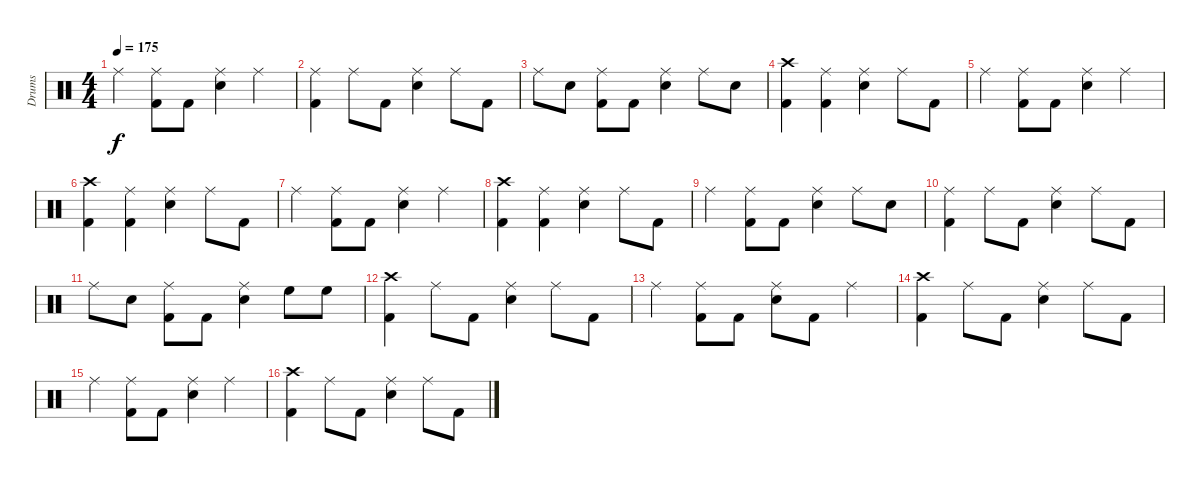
\track ("Drums" "Drums") {instrument percussion}
\staff {score}
\articulation defaults
\ts (4 4)
\tempo 175
\clef neutral
\ks c "Ride (middle)".4{dy f}
("Ride (middle)" "Kick (hit) 2").8 "Kick (hit) 2".8 ("Ride (middle)" "Snare (hit) 2").4 "Ride (middle)".4 |
("Ride (middle)" "Kick (hit) 2").4 "Ride (middle)".8 "Kick (hit) 2".8 ("Ride (middle)" "Snare (hit) 2").4 "Ride (middle)".8 "Kick (hit) 2".8 |
"Ride (middle)".8 "Snare (hit) 2".8 ("Ride (middle)" "Kick (hit) 2").8 "Kick (hit) 2".8 ("Ride (middle)" "Snare (hit) 2").4 "Ride (middle)".8 "Snare (hit) 2".8 |
("Crash high (hit)" "Kick (hit) 2").4 ("Ride (middle)" "Kick (hit) 2").4 ("Ride (middle)" "Snare (hit) 2").4 "Ride (middle)".8 "Kick (hit) 2".8 |
"Ride (middle)".4 ("Ride (middle)" "Kick (hit) 2").8 "Kick (hit) 2".8 ("Ride (middle)" "Snare (hit) 2").4 "Ride (middle)".4 |
("Crash high (hit)" "Kick (hit) 2").4 ("Ride (middle)" "Kick (hit) 2").4 ("Ride (middle)" "Snare (hit) 2").4 "Ride (middle)".8 "Kick (hit) 2".8 |
"Ride (middle)".4 ("Ride (middle)" "Kick (hit) 2").8 "Kick (hit) 2".8 ("Ride (middle)" "Snare (hit) 2").4 "Ride (middle)".4 |
("Crash high (hit)" "Kick (hit) 2").4 ("Ride (middle)" "Kick (hit) 2").4 ("Ride (middle)" "Snare (hit) 2").4 "Ride (middle)".8 "Kick (hit) 2".8 |
"Ride (middle)".4 ("Ride (middle)" "Kick (hit) 2").8 "Kick (hit) 2".8 ("Ride (middle)" "Snare (hit) 2").4 "Ride (middle)".8 "Snare (hit) 2".8 |
("Ride (middle)" "Kick (hit) 2").4 "Ride (middle)".8 "Kick (hit) 2".8 ("Ride (middle)" "Snare (hit) 2").4 "Ride (middle)".8 "Kick (hit) 2".8 |
"Ride (middle)".8 "Snare (hit) 2".8 ("Ride (middle)" "Kick (hit) 2").8 "Kick (hit) 2".8 ("Ride (middle)" "Snare (hit) 2").4 "High Floor Tom (hit)".8 "High Floor Tom (hit)".8 |
("Crash high (hit)" "Kick (hit) 2").4 "Ride (middle)".8 "Kick (hit) 2".8 ("Ride (middle)" "Snare (hit) 2").4 "Ride (middle)".8 "Kick (hit) 2".8 |
"Ride (middle)".4 ("Ride (middle)" "Kick (hit) 2").8 "Kick (hit) 2".8 ("Ride (middle)" "Snare (hit) 2").8 "Kick (hit) 2".8 "Ride (middle)".4 |
("Crash high (hit)" "Kick (hit) 2").4 "Ride (middle)".8 "Kick (hit) 2".8 ("Ride (middle)" "Snare (hit) 2").4 "Ride (middle)".8 "Kick (hit) 2".8 |
"Ride (middle)".4 ("Ride (middle)" "Kick (hit) 2").8 "Kick (hit) 2".8 ("Ride (middle)" "Snare (hit) 2").4 "Ride (middle)".4 |
("Crash high (hit)" "Kick (hit) 2").4 "Ride (middle)".8 "Kick (hit) 2".8 ("Ride (middle)" "Snare (hit) 2").4 "Ride (middle)".8 "Kick (hit) 2".8
